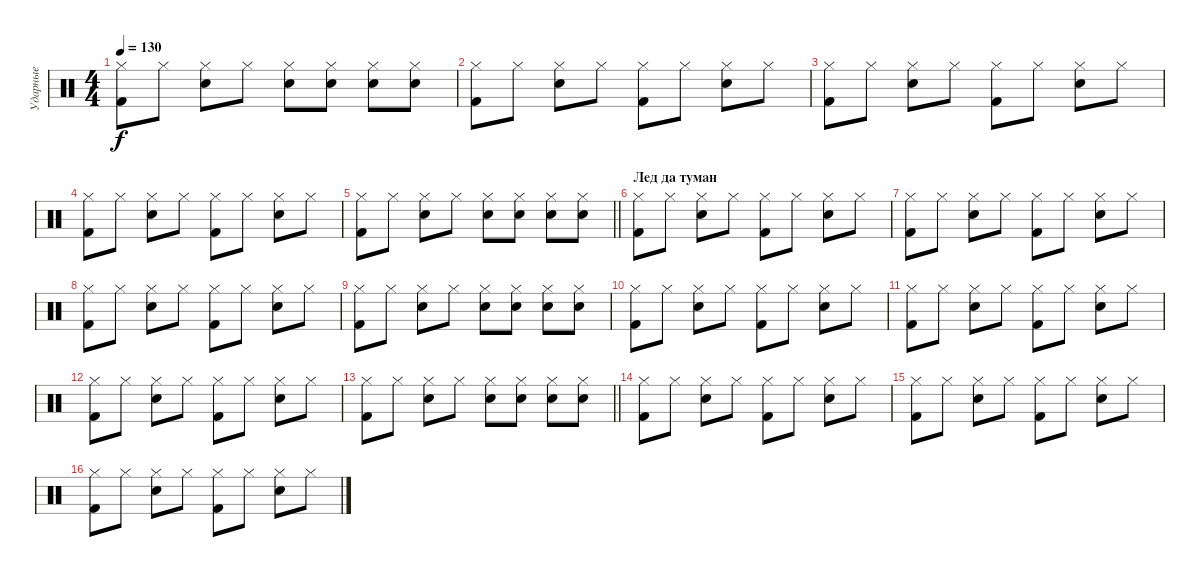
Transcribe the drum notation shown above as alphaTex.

\track ("Ударные" "Ударные") {instrument percussion}
\staff {score}
\articulation defaults
\ts (4 4)
\tempo 130
\clef neutral
\ks c
("Hi-Hat (closed)" "Kick (hit) 2").8{dy f} "Hi-Hat (closed)".8 ("Hi-Hat (closed)" "Snare (hit) 2").8 "Hi-Hat (closed)".8 ("Hi-Hat (closed)" "Snare (hit) 2").8 ("Hi-Hat (closed)" "Snare (hit) 2").8 ("Hi-Hat (closed)" "Snare (hit) 2").8 ("Hi-Hat (closed)" "Snare (hit) 2").8 |
("Hi-Hat (closed)" "Kick (hit) 2").8 "Hi-Hat (closed)".8 ("Hi-Hat (closed)" "Snare (hit) 2").8 "Hi-Hat (closed)".8 ("Hi-Hat (closed)" "Kick (hit) 2").8 "Hi-Hat (closed)".8 ("Hi-Hat (closed)" "Snare (hit) 2").8 "Hi-Hat (closed)".8 |
("Hi-Hat (closed)" "Kick (hit) 2").8 "Hi-Hat (closed)".8 ("Hi-Hat (closed)" "Snare (hit) 2").8 "Hi-Hat (closed)".8 ("Hi-Hat (closed)" "Kick (hit) 2").8 "Hi-Hat (closed)".8 ("Hi-Hat (closed)" "Snare (hit) 2").8 "Hi-Hat (closed)".8 |
("Hi-Hat (closed)" "Kick (hit) 2").8 "Hi-Hat (closed)".8 ("Hi-Hat (closed)" "Snare (hit) 2").8 "Hi-Hat (closed)".8 ("Hi-Hat (closed)" "Kick (hit) 2").8 "Hi-Hat (closed)".8 ("Hi-Hat (closed)" "Snare (hit) 2").8 "Hi-Hat (closed)".8 |
\barLineRight lightlight
("Hi-Hat (closed)" "Kick (hit) 2").8 "Hi-Hat (closed)".8 ("Hi-Hat (closed)" "Snare (hit) 2").8 "Hi-Hat (closed)".8 ("Hi-Hat (closed)" "Snare (hit) 2").8 ("Hi-Hat (closed)" "Snare (hit) 2").8 ("Hi-Hat (closed)" "Snare (hit) 2").8 ("Hi-Hat (closed)" "Snare (hit) 2").8 |
\section ("" "Лед да туман")
("Hi-Hat (closed)" "Kick (hit) 2").8 "Hi-Hat (closed)".8 ("Hi-Hat (closed)" "Snare (hit) 2").8 "Hi-Hat (closed)".8 ("Hi-Hat (closed)" "Kick (hit) 2").8 "Hi-Hat (closed)".8 ("Hi-Hat (closed)" "Snare (hit) 2").8 "Hi-Hat (closed)".8 |
("Hi-Hat (closed)" "Kick (hit) 2").8 "Hi-Hat (closed)".8 ("Hi-Hat (closed)" "Snare (hit) 2").8 "Hi-Hat (closed)".8 ("Hi-Hat (closed)" "Kick (hit) 2").8 "Hi-Hat (closed)".8 ("Hi-Hat (closed)" "Snare (hit) 2").8 "Hi-Hat (closed)".8 |
("Hi-Hat (closed)" "Kick (hit) 2").8 "Hi-Hat (closed)".8 ("Hi-Hat (closed)" "Snare (hit) 2").8 "Hi-Hat (closed)".8 ("Hi-Hat (closed)" "Kick (hit) 2").8 "Hi-Hat (closed)".8 ("Hi-Hat (closed)" "Snare (hit) 2").8 "Hi-Hat (closed)".8 |
("Hi-Hat (closed)" "Kick (hit) 2").8 "Hi-Hat (closed)".8 ("Hi-Hat (closed)" "Snare (hit) 2").8 "Hi-Hat (closed)".8 ("Hi-Hat (closed)" "Snare (hit) 2").8 ("Hi-Hat (closed)" "Snare (hit) 2").8 ("Hi-Hat (closed)" "Snare (hit) 2").8 ("Hi-Hat (closed)" "Snare (hit) 2").8 |
("Hi-Hat (closed)" "Kick (hit) 2").8 "Hi-Hat (closed)".8 ("Hi-Hat (closed)" "Snare (hit) 2").8 "Hi-Hat (closed)".8 ("Hi-Hat (closed)" "Kick (hit) 2").8 "Hi-Hat (closed)".8 ("Hi-Hat (closed)" "Snare (hit) 2").8 "Hi-Hat (closed)".8 |
("Hi-Hat (closed)" "Kick (hit) 2").8 "Hi-Hat (closed)".8 ("Hi-Hat (closed)" "Snare (hit) 2").8 "Hi-Hat (closed)".8 ("Hi-Hat (closed)" "Kick (hit) 2").8 "Hi-Hat (closed)".8 ("Hi-Hat (closed)" "Snare (hit) 2").8 "Hi-Hat (closed)".8 |
("Hi-Hat (closed)" "Kick (hit) 2").8 "Hi-Hat (closed)".8 ("Hi-Hat (closed)" "Snare (hit) 2").8 "Hi-Hat (closed)".8 ("Hi-Hat (closed)" "Kick (hit) 2").8 "Hi-Hat (closed)".8 ("Hi-Hat (closed)" "Snare (hit) 2").8 "Hi-Hat (closed)".8 |
\barLineRight lightlight
("Hi-Hat (closed)" "Kick (hit) 2").8 "Hi-Hat (closed)".8 ("Hi-Hat (closed)" "Snare (hit) 2").8 "Hi-Hat (closed)".8 ("Hi-Hat (closed)" "Snare (hit) 2").8 ("Hi-Hat (closed)" "Snare (hit) 2").8 ("Hi-Hat (closed)" "Snare (hit) 2").8 ("Hi-Hat (closed)" "Snare (hit) 2").8 |
("Hi-Hat (closed)" "Kick (hit) 2").8 "Hi-Hat (closed)".8 ("Hi-Hat (closed)" "Snare (hit) 2").8 "Hi-Hat (closed)".8 ("Hi-Hat (closed)" "Kick (hit) 2").8 "Hi-Hat (closed)".8 ("Hi-Hat (closed)" "Snare (hit) 2").8 "Hi-Hat (closed)".8 |
("Hi-Hat (closed)" "Kick (hit) 2").8 "Hi-Hat (closed)".8 ("Hi-Hat (closed)" "Snare (hit) 2").8 "Hi-Hat (closed)".8 ("Hi-Hat (closed)" "Kick (hit) 2").8 "Hi-Hat (closed)".8 ("Hi-Hat (closed)" "Snare (hit) 2").8 "Hi-Hat (closed)".8 |
("Hi-Hat (closed)" "Kick (hit) 2").8 "Hi-Hat (closed)".8 ("Hi-Hat (closed)" "Snare (hit) 2").8 "Hi-Hat (closed)".8 ("Hi-Hat (closed)" "Kick (hit) 2").8 "Hi-Hat (closed)".8 ("Hi-Hat (closed)" "Snare (hit) 2").8 "Hi-Hat (closed)".8
